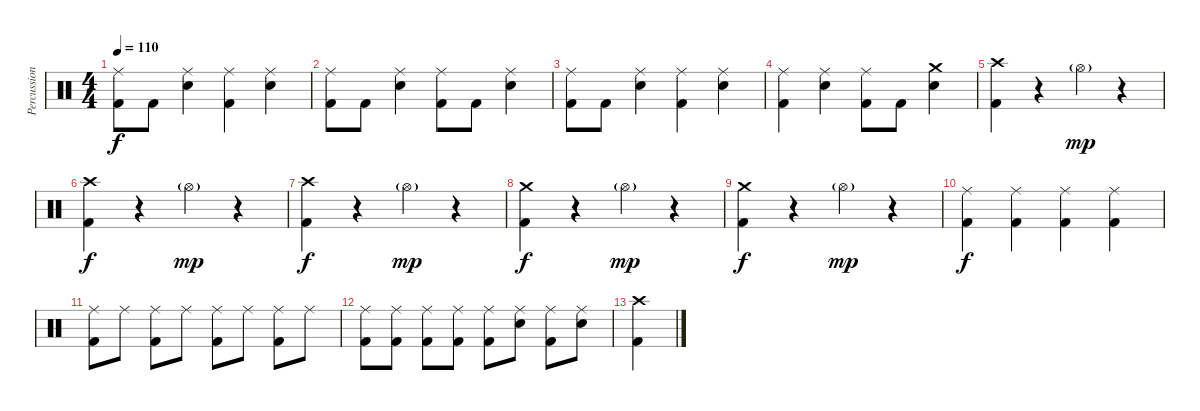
\track ("Percussion" "Percussion") {instrument percussion}
\staff {score}
\articulation defaults
\ts (4 4)
\tempo 110
\clef neutral
\ks c
("Ride (middle)" "Kick (hit) 2").8{dy f} "Kick (hit) 2".8 ("Ride (middle)" "Snare (hit) 2").4 ("Ride (middle)" "Kick (hit) 2").4 ("Ride (middle)" "Snare (hit) 2").4 |
("Ride (middle)" "Kick (hit) 2").8 "Kick (hit) 2".8 ("Ride (middle)" "Snare (hit) 2").4 ("Ride (middle)" "Kick (hit) 2").8 "Kick (hit) 2".8 ("Ride (middle)" "Snare (hit) 2").4 |
("Ride (middle)" "Kick (hit) 2").8 "Kick (hit) 2".8 ("Ride (middle)" "Snare (hit) 2").4 ("Ride (middle)" "Kick (hit) 2").4 ("Ride (middle)" "Snare (hit) 2").4 |
("Ride (middle)" "Kick (hit) 2").4 ("Ride (middle)" "Snare (hit) 2").4 ("Ride (middle)" "Kick (hit) 2").8 "Kick (hit) 2".8 ("Crash medium (hit)" "Snare (hit) 2").4 |
("Crash high (hit)" "Kick (hit) 2").4 r.4 "Hi-Hat (open)"{g}.4{dy mp} r.4 |
("Crash high (hit)" "Kick (hit) 2").4{dy f} r.4 "Hi-Hat (open)"{g}.4{dy mp} r.4 |
("Crash high (hit)" "Kick (hit) 2").4{dy f} r.4 "Hi-Hat (open)"{g}.4{dy mp} r.4 |
("Crash medium (hit)" "Kick (hit) 2").4{dy f} r.4 "Hi-Hat (open)"{g}.4{dy mp} r.4 |
("Crash medium (hit)" "Kick (hit) 2").4{dy f} r.4 "Hi-Hat (open)"{g}.4{dy mp} r.4 |
("Ride (middle)" "Kick (hit) 2").4{dy f} ("Ride (middle)" "Kick (hit) 2").4 ("Ride (middle)" "Kick (hit) 2").4 ("Ride (middle)" "Kick (hit) 2").4 |
("Ride (middle)" "Kick (hit) 2").8 "Ride (middle)".8 ("Ride (middle)" "Kick (hit) 2").8 "Ride (middle)".8 ("Ride (middle)" "Kick (hit) 2").8 "Ride (middle)".8 ("Ride (middle)" "Kick (hit) 2").8 "Ride (middle)".8 |
("Ride (middle)" "Kick (hit) 2").8 ("Ride (middle)" "Kick (hit) 2").8 ("Ride (middle)" "Kick (hit) 2").8 ("Ride (middle)" "Kick (hit) 2").8 ("Ride (middle)" "Kick (hit) 2").8 ("Ride (middle)" "Snare (hit) 2").8 ("Ride (middle)" "Kick (hit) 2").8 ("Ride (middle)" "Snare (hit) 2").8 |
("Crash high (hit)" "Kick (hit) 2").4
